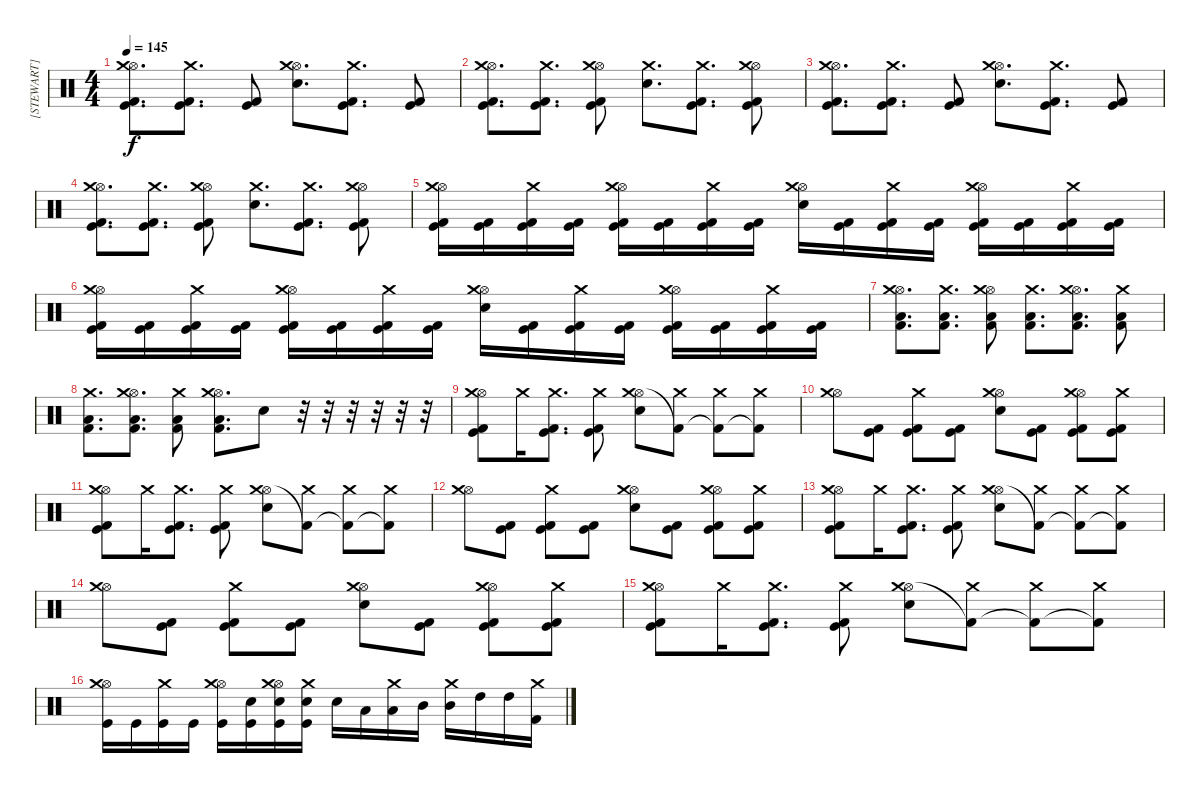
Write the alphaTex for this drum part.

\track ("[STEWART]" "[STEWART]") {instrument percussion}
\staff {score}
\articulation defaults
\ts (4 4)
\tempo 145
\clef neutral
\ks c
("Hi-Hat (open)" "Crash medium (hit)" "Kick (hit) 2" "Kick (hit)").8{d dy f} ("Crash medium (hit)" "Kick (hit) 2" "Kick (hit)").8{d} ("Kick (hit) 2" "Kick (hit)").8 ("Hi-Hat (open)" "Crash medium (hit)" "Electric Snare (hit)").8{d} ("Crash medium (hit)" "Kick (hit) 2" "Kick (hit)").8{d} ("Kick (hit) 2" "Kick (hit)").8 |
("Hi-Hat (open)" "Crash medium (hit)" "Kick (hit) 2" "Kick (hit)").8{d} ("Crash medium (hit)" "Kick (hit) 2" "Kick (hit)").8{d} ("Hi-Hat (open)" "Crash medium (hit)" "Kick (hit) 2" "Kick (hit)").8 ("Crash medium (hit)" "Electric Snare (hit)").8{d} ("Crash medium (hit)" "Kick (hit) 2" "Kick (hit)").8{d} ("Hi-Hat (open)" "Crash medium (hit)" "Kick (hit) 2" "Kick (hit)").8 |
("Hi-Hat (open)" "Crash medium (hit)" "Kick (hit) 2" "Kick (hit)").8{d} ("Crash medium (hit)" "Kick (hit) 2" "Kick (hit)").8{d} ("Kick (hit) 2" "Kick (hit)").8 ("Hi-Hat (open)" "Crash medium (hit)" "Electric Snare (hit)").8{d} ("Crash medium (hit)" "Kick (hit) 2" "Kick (hit)").8{d} ("Kick (hit) 2" "Kick (hit)").8 |
("Hi-Hat (open)" "Crash medium (hit)" "Kick (hit) 2" "Kick (hit)").8{d} ("Crash medium (hit)" "Kick (hit) 2" "Kick (hit)").8{d} ("Hi-Hat (open)" "Crash medium (hit)" "Kick (hit) 2" "Kick (hit)").8 ("Crash medium (hit)" "Electric Snare (hit)").8{d} ("Crash medium (hit)" "Kick (hit) 2" "Kick (hit)").8{d} ("Hi-Hat (open)" "Crash medium (hit)" "Kick (hit) 2" "Kick (hit)").8 |
("Hi-Hat (open)" "Crash medium (hit)" "Kick (hit) 2" "Kick (hit)").16 ("Kick (hit) 2" "Kick (hit)").16 ("Crash medium (hit)" "Kick (hit) 2" "Kick (hit)").16 ("Kick (hit) 2" "Kick (hit)").16 ("Hi-Hat (open)" "Crash medium (hit)" "Kick (hit) 2" "Kick (hit)").16 ("Kick (hit) 2" "Kick (hit)").16 ("Crash medium (hit)" "Kick (hit) 2" "Kick (hit)").16 ("Kick (hit) 2" "Kick (hit)").16 ("Hi-Hat (open)" "Crash medium (hit)" "Electric Snare (hit)").16 ("Kick (hit) 2" "Kick (hit)").16 ("Crash medium (hit)" "Kick (hit) 2" "Kick (hit)").16 ("Kick (hit) 2" "Kick (hit)").16 ("Hi-Hat (open)" "Crash medium (hit)" "Kick (hit) 2" "Kick (hit)").16 ("Kick (hit) 2" "Kick (hit)").16 ("Crash medium (hit)" "Kick (hit) 2" "Kick (hit)").16 ("Kick (hit) 2" "Kick (hit)").16 |
("Hi-Hat (open)" "Crash medium (hit)" "Kick (hit) 2" "Kick (hit)").16 ("Kick (hit) 2" "Kick (hit)").16 ("Crash medium (hit)" "Kick (hit) 2" "Kick (hit)").16 ("Kick (hit) 2" "Kick (hit)").16 ("Hi-Hat (open)" "Crash medium (hit)" "Kick (hit) 2" "Kick (hit)").16 ("Kick (hit) 2" "Kick (hit)").16 ("Crash medium (hit)" "Kick (hit) 2" "Kick (hit)").16 ("Kick (hit) 2" "Kick (hit)").16 ("Hi-Hat (open)" "Crash medium (hit)" "Electric Snare (hit)").16 ("Kick (hit) 2" "Kick (hit)").16 ("Crash medium (hit)" "Kick (hit) 2" "Kick (hit)").16 ("Kick (hit) 2" "Kick (hit)").16 ("Hi-Hat (open)" "Crash medium (hit)" "Kick (hit) 2" "Kick (hit)").16 ("Kick (hit) 2" "Kick (hit)").16 ("Crash medium (hit)" "Kick (hit) 2" "Kick (hit)").16 ("Kick (hit) 2" "Kick (hit)").16 |
("Hi-Hat (open)" "Crash medium (hit)" "Low Tom (hit)" "Kick (hit) 2").8{d} ("Crash medium (hit)" "Low Tom (hit)" "Kick (hit) 2").8{d} ("Hi-Hat (open)" "Crash medium (hit)" "Low Tom (hit)" "Kick (hit) 2").8 ("Crash medium (hit)" "Low Tom (hit)" "Kick (hit) 2").8{d} ("Hi-Hat (open)" "Crash medium (hit)" "Low Tom (hit)" "Kick (hit) 2").8{d} ("Crash medium (hit)" "Low Tom (hit)" "Kick (hit) 2").8 |
("Crash medium (hit)" "Low Tom (hit)" "Kick (hit) 2").8{d} ("Hi-Hat (open)" "Crash medium (hit)" "Low Tom (hit)" "Kick (hit) 2").8{d} ("Crash medium (hit)" "Low Tom (hit)" "Kick (hit) 2").8 ("Hi-Hat (open)" "Crash medium (hit)" "Low Tom (hit)" "Kick (hit) 2").8{d} "Electric Snare (hit)".8 r.32 r.32 r.32 r.32 r.32 r.32 |
("Hi-Hat (open)" "Crash medium (hit)" "Kick (hit) 2" "Kick (hit)").8 "Crash medium (hit)".16 ("Crash medium (hit)" "Kick (hit) 2" "Kick (hit)").8{d} ("Crash medium (hit)" "Kick (hit) 2" "Kick (hit)").8 ("Hi-Hat (open)" "Crash medium (hit)" "Electric Snare (hit)").8 ("Crash medium (hit)" "Kick (hit) 2"{t}).8 ("Crash medium (hit)" "Kick (hit) 2"{t}).8 ("Crash medium (hit)" "Kick (hit) 2"{t}).8 |
("Hi-Hat (open)" "Crash medium (hit)").8 ("Kick (hit) 2" "Kick (hit)").8 ("Crash medium (hit)" "Kick (hit) 2" "Kick (hit)").8 ("Kick (hit) 2" "Kick (hit)").8 ("Hi-Hat (open)" "Crash medium (hit)" "Electric Snare (hit)").8 ("Kick (hit) 2" "Kick (hit)").8 ("Hi-Hat (open)" "Crash medium (hit)" "Kick (hit) 2" "Kick (hit)").8 ("Crash medium (hit)" "Kick (hit) 2" "Kick (hit)").8 |
("Hi-Hat (open)" "Crash medium (hit)" "Kick (hit) 2" "Kick (hit)").8 "Crash medium (hit)".16 ("Crash medium (hit)" "Kick (hit) 2" "Kick (hit)").8{d} ("Crash medium (hit)" "Kick (hit) 2" "Kick (hit)").8 ("Hi-Hat (open)" "Crash medium (hit)" "Electric Snare (hit)").8 ("Crash medium (hit)" "Kick (hit) 2"{t}).8 ("Crash medium (hit)" "Kick (hit) 2"{t}).8 ("Crash medium (hit)" "Kick (hit) 2"{t}).8 |
("Hi-Hat (open)" "Crash medium (hit)").8 ("Kick (hit) 2" "Kick (hit)").8 ("Crash medium (hit)" "Kick (hit) 2" "Kick (hit)").8 ("Kick (hit) 2" "Kick (hit)").8 ("Hi-Hat (open)" "Crash medium (hit)" "Electric Snare (hit)").8 ("Kick (hit) 2" "Kick (hit)").8 ("Hi-Hat (open)" "Crash medium (hit)" "Kick (hit) 2" "Kick (hit)").8 ("Crash medium (hit)" "Kick (hit) 2" "Kick (hit)").8 |
("Hi-Hat (open)" "Crash medium (hit)" "Kick (hit) 2" "Kick (hit)").8 "Crash medium (hit)".16 ("Crash medium (hit)" "Kick (hit) 2" "Kick (hit)").8{d} ("Crash medium (hit)" "Kick (hit) 2" "Kick (hit)").8 ("Hi-Hat (open)" "Crash medium (hit)" "Electric Snare (hit)").8 ("Crash medium (hit)" "Kick (hit) 2"{t}).8 ("Crash medium (hit)" "Kick (hit) 2"{t}).8 ("Crash medium (hit)" "Kick (hit) 2"{t}).8 |
("Hi-Hat (open)" "Crash medium (hit)").8 ("Kick (hit) 2" "Kick (hit)").8 ("Crash medium (hit)" "Kick (hit) 2" "Kick (hit)").8 ("Kick (hit) 2" "Kick (hit)").8 ("Hi-Hat (open)" "Crash medium (hit)" "Electric Snare (hit)").8 ("Kick (hit) 2" "Kick (hit)").8 ("Hi-Hat (open)" "Crash medium (hit)" "Kick (hit) 2" "Kick (hit)").8 ("Crash medium (hit)" "Kick (hit) 2" "Kick (hit)").8 |
("Hi-Hat (open)" "Crash medium (hit)" "Kick (hit) 2" "Kick (hit)").8 "Crash medium (hit)".16 ("Crash medium (hit)" "Kick (hit) 2" "Kick (hit)").8{d} ("Crash medium (hit)" "Kick (hit) 2" "Kick (hit)").8 ("Hi-Hat (open)" "Crash medium (hit)" "Electric Snare (hit)").8 ("Crash medium (hit)" "Kick (hit) 2"{t}).8 ("Crash medium (hit)" "Kick (hit) 2"{t}).8 ("Crash medium (hit)" "Kick (hit) 2"{t}).8 |
("Hi-Hat (open)" "Crash medium (hit)" "Kick (hit)").16 "Kick (hit)".16 ("Crash medium (hit)" "Kick (hit)").16 "Kick (hit)".16 ("Hi-Hat (open)" "Crash medium (hit)" "Kick (hit)").16 ("Electric Snare (hit)" "Kick (hit)").16 ("Hi-Hat (open)" "Crash medium (hit)" "Electric Snare (hit)" "Kick (hit)").16 ("Crash medium (hit)" "Electric Snare (hit)" "Kick (hit)").16 "Electric Snare (hit)".16 "Low Tom (hit)".16 ("Crash medium (hit)" "Low Tom (hit)").16 "Mid Tom (hit)".16 ("Crash medium (hit)" "Mid Tom (hit)").16 "High Tom (hit)".16 "High Tom (hit)".16 ("Crash medium (hit)" "Kick (hit) 2").16
